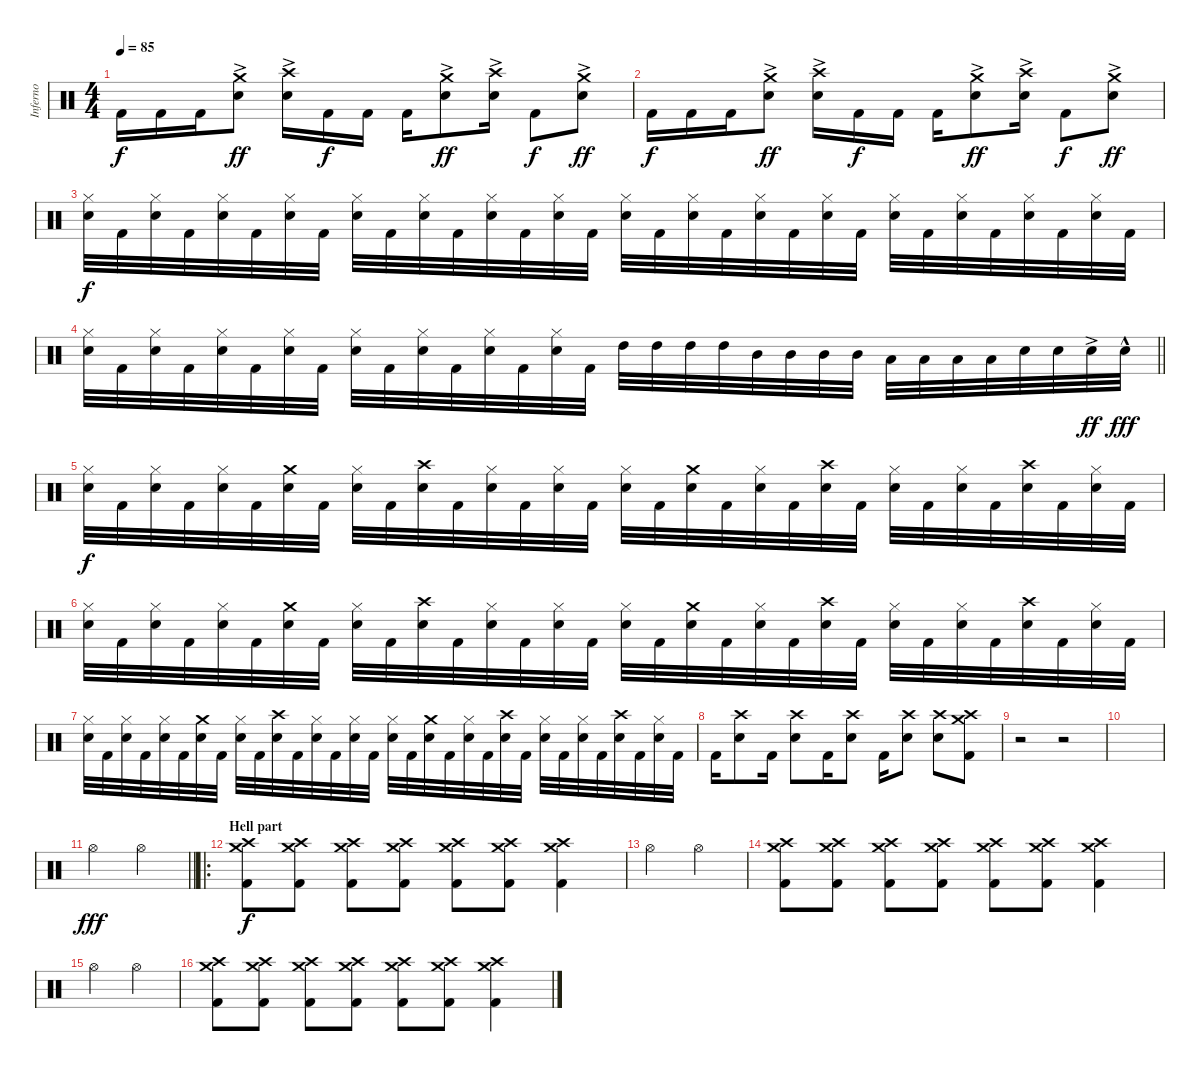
\track ("Inferno" "Inferno") {instrument percussion}
\staff {score}
\articulation defaults
\ts (4 4)
\tempo 85
\clef neutral
\ks c "Kick (hit) 2".16{dy f} "Kick (hit) 2".16 "Kick (hit) 2".16
("Crash medium (hit)" "Electric Snare (hit)"{ac}).8{dy ff} ("Crash high (hit)" "Electric Snare (hit)"{ac}).16 "Kick (hit) 2".16{dy f} "Kick (hit) 2".16 "Kick (hit) 2".16 ("Crash medium (hit)" "Electric Snare (hit)"{ac}).8{dy ff} ("Crash high (hit)" "Electric Snare (hit)"{ac}).16 "Kick (hit) 2".8{dy f} ("Crash medium (hit)" "Electric Snare (hit)"{ac}).8{dy ff} |
"Kick (hit) 2".16{dy f} "Kick (hit) 2".16 "Kick (hit) 2".16 ("Crash medium (hit)" "Electric Snare (hit)"{ac}).8{dy ff} ("Crash high (hit)" "Electric Snare (hit)"{ac}).16 "Kick (hit) 2".16{dy f} "Kick (hit) 2".16 "Kick (hit) 2".16 ("Crash medium (hit)" "Electric Snare (hit)"{ac}).8{dy ff} ("Crash high (hit)" "Electric Snare (hit)"{ac}).16 "Kick (hit) 2".8{dy f} ("Crash medium (hit)" "Electric Snare (hit)"{ac}).8{dy ff} |
("Hi-Hat (closed)" "Electric Snare (hit)").32{dy f} "Kick (hit) 2".32 ("Hi-Hat (closed)" "Electric Snare (hit)").32 "Kick (hit) 2".32 ("Hi-Hat (closed)" "Electric Snare (hit)").32 "Kick (hit) 2".32 ("Hi-Hat (closed)" "Electric Snare (hit)").32 "Kick (hit) 2".32 ("Hi-Hat (closed)" "Electric Snare (hit)").32 "Kick (hit) 2".32 ("Hi-Hat (closed)" "Electric Snare (hit)").32 "Kick (hit) 2".32 ("Hi-Hat (closed)" "Electric Snare (hit)").32 "Kick (hit) 2".32 ("Hi-Hat (closed)" "Electric Snare (hit)").32 "Kick (hit) 2".32 ("Hi-Hat (closed)" "Electric Snare (hit)").32 "Kick (hit) 2".32 ("Hi-Hat (closed)" "Electric Snare (hit)").32 "Kick (hit) 2".32 ("Hi-Hat (closed)" "Electric Snare (hit)").32 "Kick (hit) 2".32 ("Hi-Hat (closed)" "Electric Snare (hit)").32 "Kick (hit) 2".32 ("Hi-Hat (closed)" "Electric Snare (hit)").32 "Kick (hit) 2".32 ("Hi-Hat (closed)" "Electric Snare (hit)").32 "Kick (hit) 2".32 ("Hi-Hat (closed)" "Electric Snare (hit)").32 "Kick (hit) 2".32 ("Hi-Hat (closed)" "Electric Snare (hit)").32 "Kick (hit) 2".32 |
\barLineRight lightlight
("Hi-Hat (closed)" "Electric Snare (hit)").32 "Kick (hit) 2".32 ("Hi-Hat (closed)" "Electric Snare (hit)").32 "Kick (hit) 2".32 ("Hi-Hat (closed)" "Electric Snare (hit)").32 "Kick (hit) 2".32 ("Hi-Hat (closed)" "Electric Snare (hit)").32 "Kick (hit) 2".32 ("Hi-Hat (closed)" "Electric Snare (hit)").32 "Kick (hit) 2".32 ("Hi-Hat (closed)" "Electric Snare (hit)").32 "Kick (hit) 2".32 ("Hi-Hat (closed)" "Electric Snare (hit)").32 "Kick (hit) 2".32 ("Hi-Hat (closed)" "Electric Snare (hit)").32 "Kick (hit) 2".32 "High Tom (hit)".32 "High Tom (hit)".32 "High Tom (hit)".32 "High Tom (hit)".32 "Mid Tom (hit)".32 "Mid Tom (hit)".32 "Mid Tom (hit)".32 "Mid Tom (hit)".32 "Low Tom (hit)".32 "Low Tom (hit)".32 "Low Tom (hit)".32 "Low Tom (hit)".32 "Electric Snare (hit)".32 "Electric Snare (hit)".32 "Electric Snare (hit)"{ac}.32{dy ff} "Electric Snare (hit)"{hac}.32{dy fff} |
("Hi-Hat (closed)" "Electric Snare (hit)").32{dy f} "Kick (hit) 2".32 ("Hi-Hat (closed)" "Electric Snare (hit)").32 "Kick (hit) 2".32 ("Hi-Hat (closed)" "Electric Snare (hit)").32 "Kick (hit) 2".32 ("Crash medium (hit)" "Electric Snare (hit)").32 "Kick (hit) 2".32 ("Hi-Hat (closed)" "Electric Snare (hit)").32 "Kick (hit) 2".32 ("Crash high (hit)" "Electric Snare (hit)").32 "Kick (hit) 2".32 ("Hi-Hat (closed)" "Electric Snare (hit)").32 "Kick (hit) 2".32 ("Hi-Hat (closed)" "Electric Snare (hit)").32 "Kick (hit) 2".32 ("Hi-Hat (closed)" "Electric Snare (hit)").32 "Kick (hit) 2".32 ("Crash medium (hit)" "Electric Snare (hit)").32 "Kick (hit) 2".32 ("Hi-Hat (closed)" "Electric Snare (hit)").32 "Kick (hit) 2".32 ("Crash high (hit)" "Electric Snare (hit)").32 "Kick (hit) 2".32 ("Hi-Hat (closed)" "Electric Snare (hit)").32 "Kick (hit) 2".32 ("Hi-Hat (closed)" "Electric Snare (hit)").32 "Kick (hit) 2".32 ("Crash high (hit)" "Electric Snare (hit)").32 "Kick (hit) 2".32 ("Hi-Hat (closed)" "Electric Snare (hit)").32 "Kick (hit) 2".32 |
("Hi-Hat (closed)" "Electric Snare (hit)").32 "Kick (hit) 2".32 ("Hi-Hat (closed)" "Electric Snare (hit)").32 "Kick (hit) 2".32 ("Hi-Hat (closed)" "Electric Snare (hit)").32 "Kick (hit) 2".32 ("Crash medium (hit)" "Electric Snare (hit)").32 "Kick (hit) 2".32 ("Hi-Hat (closed)" "Electric Snare (hit)").32 "Kick (hit) 2".32 ("Crash high (hit)" "Electric Snare (hit)").32 "Kick (hit) 2".32 ("Hi-Hat (closed)" "Electric Snare (hit)").32 "Kick (hit) 2".32 ("Hi-Hat (closed)" "Electric Snare (hit)").32 "Kick (hit) 2".32 ("Hi-Hat (closed)" "Electric Snare (hit)").32 "Kick (hit) 2".32 ("Crash medium (hit)" "Electric Snare (hit)").32 "Kick (hit) 2".32 ("Hi-Hat (closed)" "Electric Snare (hit)").32 "Kick (hit) 2".32 ("Crash high (hit)" "Electric Snare (hit)").32 "Kick (hit) 2".32 ("Hi-Hat (closed)" "Electric Snare (hit)").32 "Kick (hit) 2".32 ("Hi-Hat (closed)" "Electric Snare (hit)").32 "Kick (hit) 2".32 ("Crash high (hit)" "Electric Snare (hit)").32 "Kick (hit) 2".32 ("Hi-Hat (closed)" "Electric Snare (hit)").32 "Kick (hit) 2".32 |
("Hi-Hat (closed)" "Electric Snare (hit)").32 "Kick (hit) 2".32 ("Hi-Hat (closed)" "Electric Snare (hit)").32 "Kick (hit) 2".32 ("Hi-Hat (closed)" "Electric Snare (hit)").32 "Kick (hit) 2".32 ("Crash medium (hit)" "Electric Snare (hit)").32 "Kick (hit) 2".32 ("Hi-Hat (closed)" "Electric Snare (hit)").32 "Kick (hit) 2".32 ("Crash high (hit)" "Electric Snare (hit)").32 "Kick (hit) 2".32 ("Hi-Hat (closed)" "Electric Snare (hit)").32 "Kick (hit) 2".32 ("Hi-Hat (closed)" "Electric Snare (hit)").32 "Kick (hit) 2".32 ("Hi-Hat (closed)" "Electric Snare (hit)").32 "Kick (hit) 2".32 ("Crash medium (hit)" "Electric Snare (hit)").32 "Kick (hit) 2".32 ("Hi-Hat (closed)" "Electric Snare (hit)").32 "Kick (hit) 2".32 ("Crash high (hit)" "Electric Snare (hit)").32 "Kick (hit) 2".32 ("Hi-Hat (closed)" "Electric Snare (hit)").32 "Kick (hit) 2".32 ("Hi-Hat (closed)" "Electric Snare (hit)").32 "Kick (hit) 2".32 ("Crash high (hit)" "Electric Snare (hit)").32 "Kick (hit) 2".32 ("Hi-Hat (closed)" "Electric Snare (hit)").32 "Kick (hit) 2".32 |
"Kick (hit) 2".16 ("Electric Snare (hit)" "Crash high (hit)").8 "Kick (hit) 2".16 ("Electric Snare (hit)" "Crash high (hit)").8 "Kick (hit) 2".16 ("Electric Snare (hit)" "Crash high (hit)").8 "Kick (hit) 2".16 ("Electric Snare (hit)" "Crash high (hit)").8 ("Electric Snare (hit)" "Crash high (hit)").8 ("Crash medium (hit)" "Crash high (hit)" "Kick (hit) 2").8 |
r.2 r.2 |
|
\barLineRight lightlight "Hi-Hat (open)".2{dy fff} "Hi-Hat (open)".2
|
\ro
\section ("" "Hell part")
("Kick (hit) 2" "Crash high (hit)" "Crash medium (hit)").8{dy f} ("Kick (hit) 2" "Crash high (hit)" "Crash medium (hit)").8 ("Kick (hit) 2" "Crash high (hit)" "Crash medium (hit)").8 ("Kick (hit) 2" "Crash high (hit)" "Crash medium (hit)").8 ("Kick (hit) 2" "Crash high (hit)" "Crash medium (hit)").8 ("Kick (hit) 2" "Crash high (hit)" "Crash medium (hit)").8 ("Kick (hit) 2" "Crash high (hit)" "Crash medium (hit)").4 |
"Hi-Hat (open)".2 "Hi-Hat (open)".2 |
("Kick (hit) 2" "Crash high (hit)" "Crash medium (hit)").8 ("Kick (hit) 2" "Crash high (hit)" "Crash medium (hit)").8 ("Kick (hit) 2" "Crash high (hit)" "Crash medium (hit)").8 ("Kick (hit) 2" "Crash high (hit)" "Crash medium (hit)").8 ("Kick (hit) 2" "Crash high (hit)" "Crash medium (hit)").8 ("Kick (hit) 2" "Crash high (hit)" "Crash medium (hit)").8 ("Kick (hit) 2" "Crash high (hit)" "Crash medium (hit)").4 |
"Hi-Hat (open)".2 "Hi-Hat (open)".2 |
("Kick (hit) 2" "Crash high (hit)" "Crash medium (hit)").8 ("Kick (hit) 2" "Crash high (hit)" "Crash medium (hit)").8 ("Kick (hit) 2" "Crash high (hit)" "Crash medium (hit)").8 ("Kick (hit) 2" "Crash high (hit)" "Crash medium (hit)").8 ("Kick (hit) 2" "Crash high (hit)" "Crash medium (hit)").8 ("Kick (hit) 2" "Crash high (hit)" "Crash medium (hit)").8 ("Kick (hit) 2" "Crash high (hit)" "Crash medium (hit)").4
